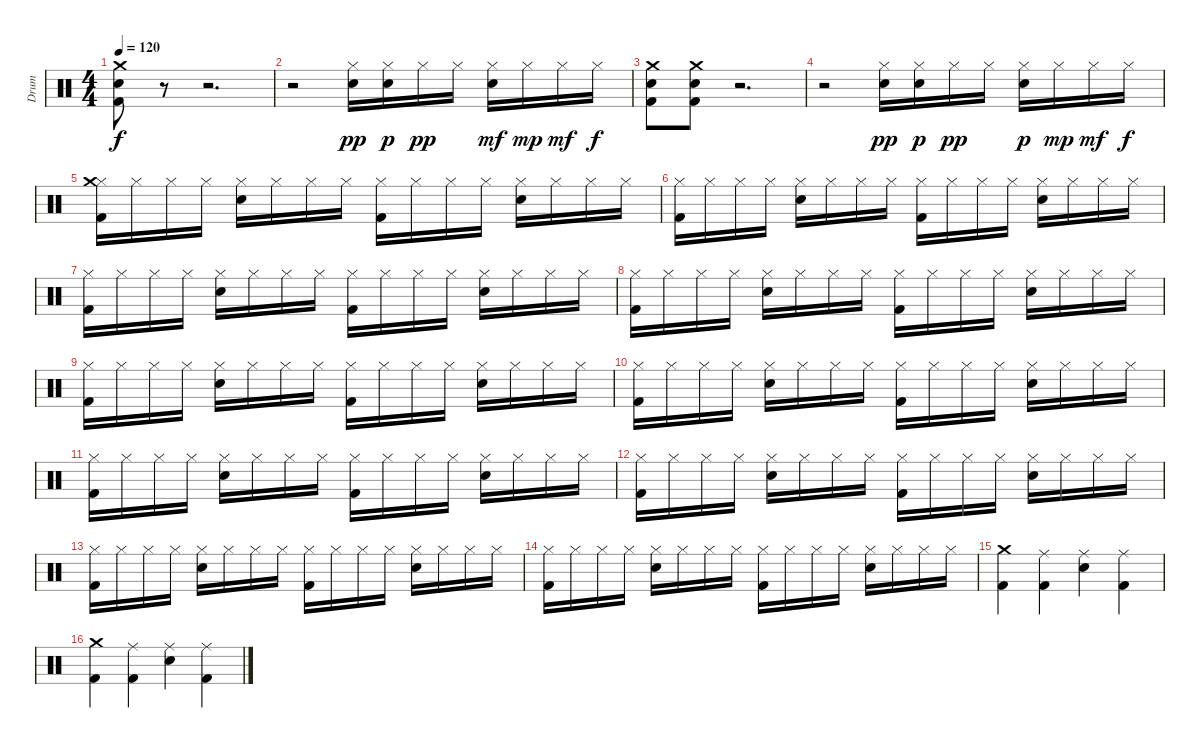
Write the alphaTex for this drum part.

\track ("Drum" "Drum") {instrument percussion}
\staff {score}
\articulation defaults
\ts (4 4)
\tempo 120
\clef neutral
\ks c
("Crash medium (hit)" "Snare (hit) 2" "Kick (hit) 2").8{dy f} r.8 r.2{d} |
r.2 ("Hi-Hat (closed)" "Snare (hit) 2").16{dy pp} ("Hi-Hat (closed)" "Snare (hit) 2").16{dy p} "Hi-Hat (closed)".16{dy pp} "Hi-Hat (closed)".16 ("Hi-Hat (closed)" "Snare (hit) 2").16{dy mf} "Hi-Hat (closed)".16{dy mp} "Hi-Hat (closed)".16{dy mf} "Hi-Hat (closed)".16{dy f} |
("Crash medium (hit)" "Snare (hit) 2" "Kick (hit) 2").8 ("Crash medium (hit)" "Snare (hit) 2" "Kick (hit) 2").8 r.2{d} |
r.2 ("Hi-Hat (closed)" "Snare (hit) 2").16{dy pp} ("Hi-Hat (closed)" "Snare (hit) 2").16{dy p} "Hi-Hat (closed)".16{dy pp} "Hi-Hat (closed)".16 ("Hi-Hat (closed)" "Snare (hit) 2").16{dy p} "Hi-Hat (closed)".16{dy mp} "Hi-Hat (closed)".16{dy mf} "Hi-Hat (closed)".16{dy f} |
("Hi-Hat (closed)" "Crash medium (hit)" "Kick (hit) 2").16 "Hi-Hat (closed)".16 "Hi-Hat (closed)".16 "Hi-Hat (closed)".16 ("Hi-Hat (closed)" "Snare (hit) 2").16 "Hi-Hat (closed)".16 "Hi-Hat (closed)".16 "Hi-Hat (closed)".16 ("Hi-Hat (closed)" "Kick (hit) 2").16 "Hi-Hat (closed)".16 "Hi-Hat (closed)".16 "Hi-Hat (closed)".16 ("Hi-Hat (closed)" "Snare (hit) 2").16 "Hi-Hat (closed)".16 "Hi-Hat (closed)".16 "Hi-Hat (closed)".16 |
("Hi-Hat (closed)" "Kick (hit) 2").16 "Hi-Hat (closed)".16 "Hi-Hat (closed)".16 "Hi-Hat (closed)".16 ("Hi-Hat (closed)" "Snare (hit) 2").16 "Hi-Hat (closed)".16 "Hi-Hat (closed)".16 "Hi-Hat (closed)".16 ("Hi-Hat (closed)" "Kick (hit) 2").16 "Hi-Hat (closed)".16 "Hi-Hat (closed)".16 "Hi-Hat (closed)".16 ("Hi-Hat (closed)" "Snare (hit) 2").16 "Hi-Hat (closed)".16 "Hi-Hat (closed)".16 "Hi-Hat (closed)".16 |
("Hi-Hat (closed)" "Kick (hit) 2").16 "Hi-Hat (closed)".16 "Hi-Hat (closed)".16 "Hi-Hat (closed)".16 ("Hi-Hat (closed)" "Snare (hit) 2").16 "Hi-Hat (closed)".16 "Hi-Hat (closed)".16 "Hi-Hat (closed)".16 ("Hi-Hat (closed)" "Kick (hit) 2").16 "Hi-Hat (closed)".16 "Hi-Hat (closed)".16 "Hi-Hat (closed)".16 ("Hi-Hat (closed)" "Snare (hit) 2").16 "Hi-Hat (closed)".16 "Hi-Hat (closed)".16 "Hi-Hat (closed)".16 |
("Hi-Hat (closed)" "Kick (hit) 2").16 "Hi-Hat (closed)".16 "Hi-Hat (closed)".16 "Hi-Hat (closed)".16 ("Hi-Hat (closed)" "Snare (hit) 2").16 "Hi-Hat (closed)".16 "Hi-Hat (closed)".16 "Hi-Hat (closed)".16 ("Hi-Hat (closed)" "Kick (hit) 2").16 "Hi-Hat (closed)".16 "Hi-Hat (closed)".16 "Hi-Hat (closed)".16 ("Hi-Hat (closed)" "Snare (hit) 2").16 "Hi-Hat (closed)".16 "Hi-Hat (closed)".16 "Hi-Hat (closed)".16 |
("Hi-Hat (closed)" "Kick (hit) 2").16 "Hi-Hat (closed)".16 "Hi-Hat (closed)".16 "Hi-Hat (closed)".16 ("Hi-Hat (closed)" "Snare (hit) 2").16 "Hi-Hat (closed)".16 "Hi-Hat (closed)".16 "Hi-Hat (closed)".16 ("Hi-Hat (closed)" "Kick (hit) 2").16 "Hi-Hat (closed)".16 "Hi-Hat (closed)".16 "Hi-Hat (closed)".16 ("Hi-Hat (closed)" "Snare (hit) 2").16 "Hi-Hat (closed)".16 "Hi-Hat (closed)".16 "Hi-Hat (closed)".16 |
("Hi-Hat (closed)" "Kick (hit) 2").16 "Hi-Hat (closed)".16 "Hi-Hat (closed)".16 "Hi-Hat (closed)".16 ("Hi-Hat (closed)" "Snare (hit) 2").16 "Hi-Hat (closed)".16 "Hi-Hat (closed)".16 "Hi-Hat (closed)".16 ("Hi-Hat (closed)" "Kick (hit) 2").16 "Hi-Hat (closed)".16 "Hi-Hat (closed)".16 "Hi-Hat (closed)".16 ("Hi-Hat (closed)" "Snare (hit) 2").16 "Hi-Hat (closed)".16 "Hi-Hat (closed)".16 "Hi-Hat (closed)".16 |
("Hi-Hat (closed)" "Kick (hit) 2").16 "Hi-Hat (closed)".16 "Hi-Hat (closed)".16 "Hi-Hat (closed)".16 ("Hi-Hat (closed)" "Snare (hit) 2").16 "Hi-Hat (closed)".16 "Hi-Hat (closed)".16 "Hi-Hat (closed)".16 ("Hi-Hat (closed)" "Kick (hit) 2").16 "Hi-Hat (closed)".16 "Hi-Hat (closed)".16 "Hi-Hat (closed)".16 ("Hi-Hat (closed)" "Snare (hit) 2").16 "Hi-Hat (closed)".16 "Hi-Hat (closed)".16 "Hi-Hat (closed)".16 |
("Hi-Hat (closed)" "Kick (hit) 2").16 "Hi-Hat (closed)".16 "Hi-Hat (closed)".16 "Hi-Hat (closed)".16 ("Hi-Hat (closed)" "Snare (hit) 2").16 "Hi-Hat (closed)".16 "Hi-Hat (closed)".16 "Hi-Hat (closed)".16 ("Hi-Hat (closed)" "Kick (hit) 2").16 "Hi-Hat (closed)".16 "Hi-Hat (closed)".16 "Hi-Hat (closed)".16 ("Hi-Hat (closed)" "Snare (hit) 2").16 "Hi-Hat (closed)".16 "Hi-Hat (closed)".16 "Hi-Hat (closed)".16 |
("Hi-Hat (closed)" "Kick (hit) 2").16 "Hi-Hat (closed)".16 "Hi-Hat (closed)".16 "Hi-Hat (closed)".16 ("Hi-Hat (closed)" "Snare (hit) 2").16 "Hi-Hat (closed)".16 "Hi-Hat (closed)".16 "Hi-Hat (closed)".16 ("Hi-Hat (closed)" "Kick (hit) 2").16 "Hi-Hat (closed)".16 "Hi-Hat (closed)".16 "Hi-Hat (closed)".16 ("Hi-Hat (closed)" "Snare (hit) 2").16 "Hi-Hat (closed)".16 "Hi-Hat (closed)".16 "Hi-Hat (closed)".16 |
("Hi-Hat (closed)" "Kick (hit) 2").16 "Hi-Hat (closed)".16 "Hi-Hat (closed)".16 "Hi-Hat (closed)".16 ("Hi-Hat (closed)" "Snare (hit) 2").16 "Hi-Hat (closed)".16 "Hi-Hat (closed)".16 "Hi-Hat (closed)".16 ("Hi-Hat (closed)" "Kick (hit) 2").16 "Hi-Hat (closed)".16 "Hi-Hat (closed)".16 "Hi-Hat (closed)".16 ("Hi-Hat (closed)" "Snare (hit) 2").16 "Hi-Hat (closed)".16 "Hi-Hat (closed)".16 "Hi-Hat (closed)".16 |
("Crash medium (hit)" "Kick (hit) 2").4 ("Ride (middle)" "Kick (hit) 2").4 ("Ride (middle)" "Snare (hit) 2").4 ("Ride (middle)" "Kick (hit) 2").4 |
("Crash medium (hit)" "Kick (hit) 2").4 ("Ride (middle)" "Kick (hit) 2").4 ("Ride (middle)" "Snare (hit) 2").4 ("Ride (middle)" "Kick (hit) 2").4
